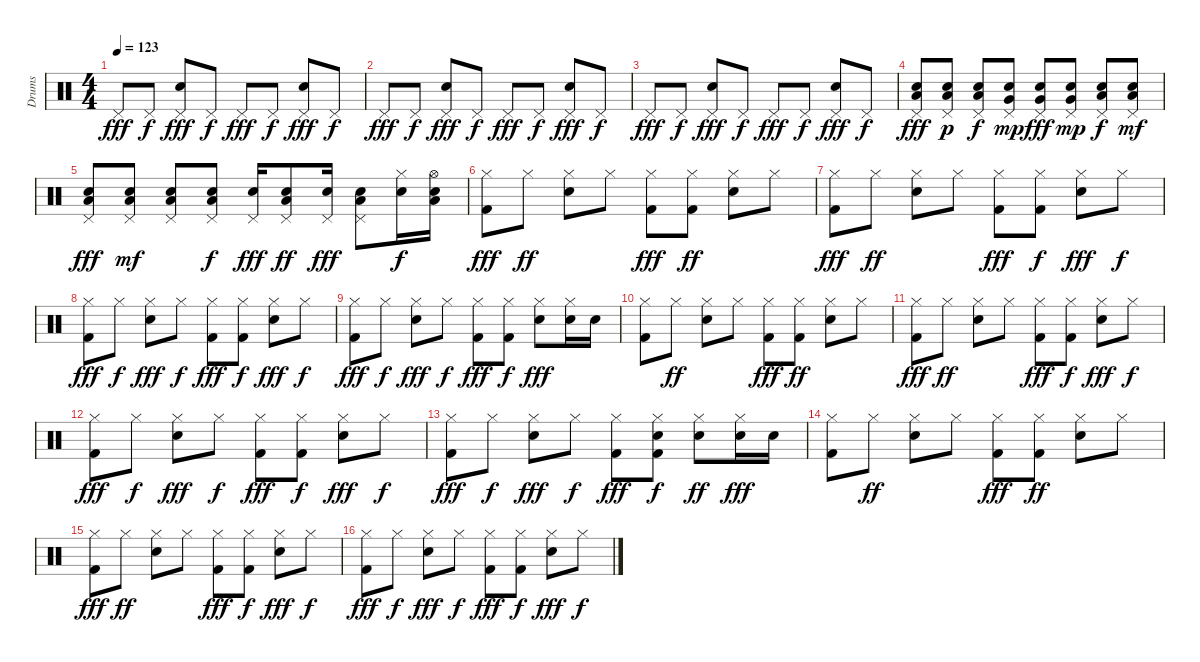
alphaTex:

\track ("Drums" "Drums") {instrument percussion}
\staff {score}
\articulation defaults
\ts (4 4)
\tempo 123
\clef neutral
\ks c "Pedal Hi-Hat (hit)".8{dy fff} "Pedal Hi-Hat (hit)".8{dy f}
("Snare (hit) 2" "Pedal Hi-Hat (hit)").8{dy fff} "Pedal Hi-Hat (hit)".8{dy f} "Pedal Hi-Hat (hit)".8{dy fff} "Pedal Hi-Hat (hit)".8{dy f} ("Snare (hit) 2" "Pedal Hi-Hat (hit)").8{dy fff} "Pedal Hi-Hat (hit)".8{dy f} |
"Pedal Hi-Hat (hit)".8{dy fff} "Pedal Hi-Hat (hit)".8{dy f} ("Snare (hit) 2" "Pedal Hi-Hat (hit)").8{dy fff} "Pedal Hi-Hat (hit)".8{dy f} "Pedal Hi-Hat (hit)".8{dy fff} "Pedal Hi-Hat (hit)".8{dy f} ("Snare (hit) 2" "Pedal Hi-Hat (hit)").8{dy fff} "Pedal Hi-Hat (hit)".8{dy f} |
"Pedal Hi-Hat (hit)".8{dy fff} "Pedal Hi-Hat (hit)".8{dy f} ("Snare (hit) 2" "Pedal Hi-Hat (hit)").8{dy fff} "Pedal Hi-Hat (hit)".8{dy f} "Pedal Hi-Hat (hit)".8{dy fff} "Pedal Hi-Hat (hit)".8{dy f} ("Snare (hit) 2" "Pedal Hi-Hat (hit)").8{dy fff} "Pedal Hi-Hat (hit)".8{dy f} |
("Snare (hit) 2" "Low Floor Tom (hit)" "Pedal Hi-Hat (hit)").8{dy fff} ("Snare (hit) 2" "Low Floor Tom (hit)" "Pedal Hi-Hat (hit)").8{dy p} ("Snare (hit) 2" "Low Floor Tom (hit)" "Pedal Hi-Hat (hit)").8{dy f} ("Snare (hit) 2" "Very Low Tom (hit)" "Pedal Hi-Hat (hit)").8{dy mp} ("Snare (hit) 2" "Very Low Tom (hit)" "Pedal Hi-Hat (hit)").8{dy fff} ("Snare (hit) 2" "Very Low Tom (hit)" "Pedal Hi-Hat (hit)").8{dy mp} ("Snare (hit) 2" "Low Tom (hit)" "Pedal Hi-Hat (hit)").8{dy f} ("Snare (hit) 2" "Low Tom (hit)" "Pedal Hi-Hat (hit)").8{dy mf} |
("Snare (hit) 2" "Low Tom (hit)" "Pedal Hi-Hat (hit)").8{dy fff} ("Snare (hit) 2" "Low Tom (hit)" "Pedal Hi-Hat (hit)").8{dy mf} ("Snare (hit) 2" "Low Tom (hit)" "Pedal Hi-Hat (hit)").8 ("Snare (hit) 2" "Low Tom (hit)" "Pedal Hi-Hat (hit)").8{dy f} ("Snare (hit) 2" "Pedal Hi-Hat (hit)").16{dy fff} ("Snare (hit) 2" "Low Tom (hit)" "Pedal Hi-Hat (hit)").8{dy ff} ("Snare (hit) 2" "Pedal Hi-Hat (hit)").16{dy fff} ("Snare (hit) 2" "Low Tom (hit)" "Pedal Hi-Hat (hit)").8 ("Snare (hit) 2" "Hi-Hat (closed)").16{dy f} ("Snare (hit) 2" "Low Tom (hit)" "Hi-Hat (open)").16 |
("Kick (hit) 2" "Hi-Hat (closed)").8{dy fff} "Hi-Hat (closed)".8{dy ff} ("Snare (hit) 2" "Hi-Hat (closed)").8 "Hi-Hat (closed)".8 ("Kick (hit) 2" "Hi-Hat (closed)").8{dy fff} ("Kick (hit) 2" "Hi-Hat (closed)").8{dy ff} ("Snare (hit) 2" "Hi-Hat (closed)").8 "Hi-Hat (closed)".8 |
("Kick (hit) 2" "Hi-Hat (closed)").8{dy fff} "Hi-Hat (closed)".8{dy ff} ("Snare (hit) 2" "Hi-Hat (closed)").8 "Hi-Hat (closed)".8 ("Kick (hit) 2" "Hi-Hat (closed)").8{dy fff} ("Kick (hit) 2" "Hi-Hat (closed)").8{dy f} ("Snare (hit) 2" "Hi-Hat (closed)").8{dy fff} "Hi-Hat (closed)".8{dy f} |
("Kick (hit) 2" "Hi-Hat (closed)").8{dy fff} "Hi-Hat (closed)".8{dy f} ("Snare (hit) 2" "Hi-Hat (closed)").8{dy fff} "Hi-Hat (closed)".8{dy f} ("Kick (hit) 2" "Hi-Hat (closed)").8{dy fff} ("Kick (hit) 2" "Hi-Hat (closed)").8{dy f} ("Snare (hit) 2" "Hi-Hat (closed)").8{dy fff} "Hi-Hat (closed)".8{dy f} |
("Kick (hit) 2" "Hi-Hat (closed)").8{dy fff} "Hi-Hat (closed)".8{dy f} ("Snare (hit) 2" "Hi-Hat (closed)").8{dy fff} "Hi-Hat (closed)".8{dy f} ("Kick (hit) 2" "Hi-Hat (closed)").8{dy fff} ("Kick (hit) 2" "Hi-Hat (closed)").8{dy f} ("Snare (hit) 2" "Hi-Hat (closed)").8{dy fff} ("Snare (hit) 2" "Hi-Hat (closed)").16 "Snare (hit) 2".16 |
("Kick (hit) 2" "Hi-Hat (closed)").8 "Hi-Hat (closed)".8{dy ff} ("Snare (hit) 2" "Hi-Hat (closed)").8 "Hi-Hat (closed)".8 ("Kick (hit) 2" "Hi-Hat (closed)").8{dy fff} ("Kick (hit) 2" "Hi-Hat (closed)").8{dy ff} ("Snare (hit) 2" "Hi-Hat (closed)").8 "Hi-Hat (closed)".8 |
("Kick (hit) 2" "Hi-Hat (closed)").8{dy fff} "Hi-Hat (closed)".8{dy ff} ("Snare (hit) 2" "Hi-Hat (closed)").8 "Hi-Hat (closed)".8 ("Kick (hit) 2" "Hi-Hat (closed)").8{dy fff} ("Kick (hit) 2" "Hi-Hat (closed)").8{dy f} ("Snare (hit) 2" "Hi-Hat (closed)").8{dy fff} "Hi-Hat (closed)".8{dy f} |
("Kick (hit) 2" "Hi-Hat (closed)").8{dy fff} "Hi-Hat (closed)".8{dy f} ("Snare (hit) 2" "Hi-Hat (closed)").8{dy fff} "Hi-Hat (closed)".8{dy f} ("Kick (hit) 2" "Hi-Hat (closed)").8{dy fff} ("Kick (hit) 2" "Hi-Hat (closed)").8{dy f} ("Snare (hit) 2" "Hi-Hat (closed)").8{dy fff} "Hi-Hat (closed)".8{dy f} |
("Kick (hit) 2" "Hi-Hat (closed)").8{dy fff} "Hi-Hat (closed)".8{dy f} ("Snare (hit) 2" "Hi-Hat (closed)").8{dy fff} "Hi-Hat (closed)".8{dy f} ("Kick (hit) 2" "Hi-Hat (closed)").8{dy fff} ("Kick (hit) 2" "Snare (hit) 2" "Hi-Hat (closed)").8{dy f} ("Snare (hit) 2" "Hi-Hat (closed)").8{dy ff} ("Snare (hit) 2" "Hi-Hat (closed)").16{dy fff} "Snare (hit) 2".16 |
("Kick (hit) 2" "Hi-Hat (closed)").8 "Hi-Hat (closed)".8{dy ff} ("Snare (hit) 2" "Hi-Hat (closed)").8 "Hi-Hat (closed)".8 ("Kick (hit) 2" "Hi-Hat (closed)").8{dy fff} ("Kick (hit) 2" "Hi-Hat (closed)").8{dy ff} ("Snare (hit) 2" "Hi-Hat (closed)").8 "Hi-Hat (closed)".8 |
("Kick (hit) 2" "Hi-Hat (closed)").8{dy fff} "Hi-Hat (closed)".8{dy ff} ("Snare (hit) 2" "Hi-Hat (closed)").8 "Hi-Hat (closed)".8 ("Kick (hit) 2" "Hi-Hat (closed)").8{dy fff} ("Kick (hit) 2" "Hi-Hat (closed)").8{dy f} ("Snare (hit) 2" "Hi-Hat (closed)").8{dy fff} "Hi-Hat (closed)".8{dy f} |
("Kick (hit) 2" "Hi-Hat (closed)").8{dy fff} "Hi-Hat (closed)".8{dy f} ("Snare (hit) 2" "Hi-Hat (closed)").8{dy fff} "Hi-Hat (closed)".8{dy f} ("Kick (hit) 2" "Hi-Hat (closed)").8{dy fff} ("Kick (hit) 2" "Hi-Hat (closed)").8{dy f} ("Snare (hit) 2" "Hi-Hat (closed)").8{dy fff} "Hi-Hat (closed)".8{dy f}
